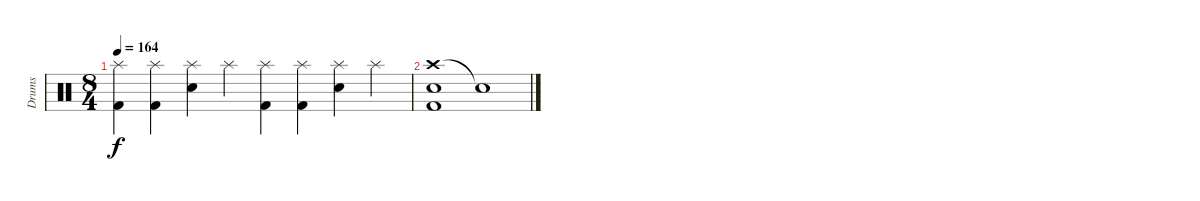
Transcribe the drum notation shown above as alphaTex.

\track ("Drums" "Drums") {instrument percussion}
\staff {score}
\articulation defaults
\ts (8 4)
\tempo 164
\clef neutral
\ks c
("Splash (hit)" "Kick (hit) 2").4{dy f} ("Splash (hit)" "Kick (hit) 2").4 ("Splash (hit)" "Snare (hit) 2").4 "Splash (hit)".4 ("Splash (hit)" "Kick (hit) 2").4 ("Splash (hit)" "Kick (hit) 2").4 ("Splash (hit)" "Snare (hit) 2").4 "Splash (hit)".4 |
("Crash high (hit)" "Snare (hit) 2" "Kick (hit) 2").1 "Snare (hit)"{t}.1
